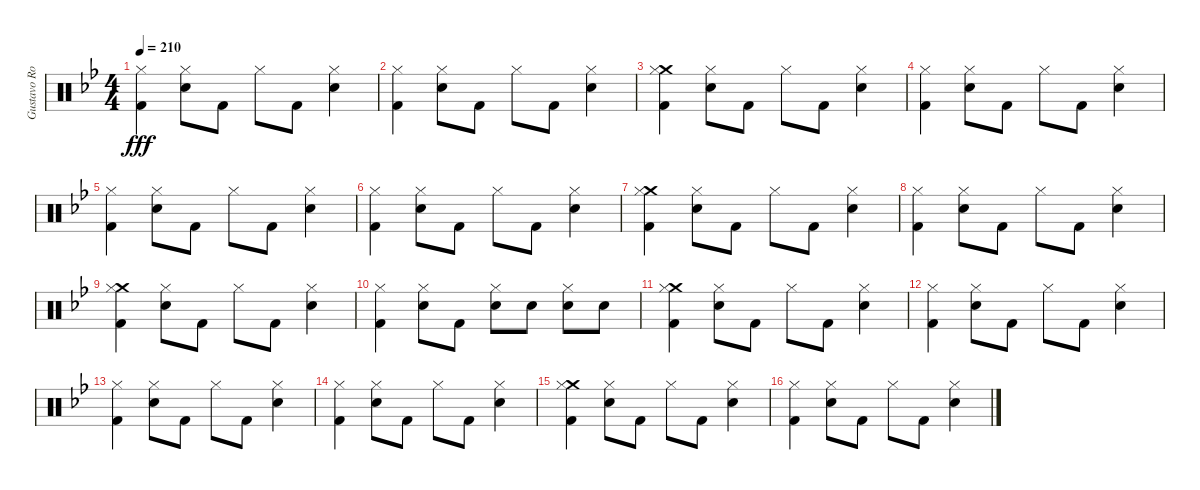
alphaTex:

\track ("Gustavo Rowek" "Gustavo Ro") {instrument percussion}
\staff {score}
\articulation defaults
\ts (4 4)
\tempo 210
\clef neutral
\ks gminor
("Hi-Hat (closed)" "Kick (hit) 2").4{dy fff} ("Hi-Hat (closed)" "Snare (hit) 2").8 "Kick (hit) 2".8 "Hi-Hat (closed)".8 "Kick (hit) 2".8 ("Hi-Hat (closed)" "Snare (hit) 2").4 |
("Hi-Hat (closed)" "Kick (hit) 2").4 ("Hi-Hat (closed)" "Snare (hit) 2").8 "Kick (hit) 2".8 "Hi-Hat (closed)".8 "Kick (hit) 2".8 ("Hi-Hat (closed)" "Snare (hit) 2").4 |
("Crash medium (hit)" "Hi-Hat (closed)" "Kick (hit) 2").4 ("Hi-Hat (closed)" "Snare (hit) 2").8 "Kick (hit) 2".8 "Hi-Hat (closed)".8 "Kick (hit) 2".8 ("Hi-Hat (closed)" "Snare (hit) 2").4 |
("Hi-Hat (closed)" "Kick (hit) 2").4 ("Hi-Hat (closed)" "Snare (hit) 2").8 "Kick (hit) 2".8 "Hi-Hat (closed)".8 "Kick (hit) 2".8 ("Hi-Hat (closed)" "Snare (hit) 2").4 |
("Hi-Hat (closed)" "Kick (hit) 2").4 ("Hi-Hat (closed)" "Snare (hit) 2").8 "Kick (hit) 2".8 "Hi-Hat (closed)".8 "Kick (hit) 2".8 ("Hi-Hat (closed)" "Snare (hit) 2").4 |
("Hi-Hat (closed)" "Kick (hit) 2").4 ("Hi-Hat (closed)" "Snare (hit) 2").8 "Kick (hit) 2".8 "Hi-Hat (closed)".8 "Kick (hit) 2".8 ("Hi-Hat (closed)" "Snare (hit) 2").4 |
("Crash medium (hit)" "Hi-Hat (closed)" "Kick (hit) 2").4 ("Hi-Hat (closed)" "Snare (hit) 2").8 "Kick (hit) 2".8 "Hi-Hat (closed)".8 "Kick (hit) 2".8 ("Hi-Hat (closed)" "Snare (hit) 2").4 |
("Hi-Hat (closed)" "Kick (hit) 2").4 ("Hi-Hat (closed)" "Snare (hit) 2").8 "Kick (hit) 2".8 "Hi-Hat (closed)".8 "Kick (hit) 2".8 ("Hi-Hat (closed)" "Snare (hit) 2").4 |
("Crash medium (hit)" "Hi-Hat (closed)" "Kick (hit) 2").4 ("Hi-Hat (closed)" "Snare (hit) 2").8 "Kick (hit) 2".8 "Hi-Hat (closed)".8 "Kick (hit) 2".8 ("Hi-Hat (closed)" "Snare (hit) 2").4 |
("Hi-Hat (closed)" "Kick (hit) 2").4 ("Hi-Hat (closed)" "Snare (hit) 2").8 "Kick (hit) 2".8 ("Hi-Hat (closed)" "Snare (hit) 2").8 "Snare (hit) 2".8 ("Hi-Hat (closed)" "Snare (hit) 2").8 "Snare (hit) 2".8 |
("Crash medium (hit)" "Hi-Hat (closed)" "Kick (hit) 2").4 ("Hi-Hat (closed)" "Snare (hit) 2").8 "Kick (hit) 2".8 "Hi-Hat (closed)".8 "Kick (hit) 2".8 ("Hi-Hat (closed)" "Snare (hit) 2").4 |
("Hi-Hat (closed)" "Kick (hit) 2").4 ("Hi-Hat (closed)" "Snare (hit) 2").8 "Kick (hit) 2".8 "Hi-Hat (closed)".8 "Kick (hit) 2".8 ("Hi-Hat (closed)" "Snare (hit) 2").4 |
("Hi-Hat (closed)" "Kick (hit) 2").4 ("Hi-Hat (closed)" "Snare (hit) 2").8 "Kick (hit) 2".8 "Hi-Hat (closed)".8 "Kick (hit) 2".8 ("Hi-Hat (closed)" "Snare (hit) 2").4 |
("Hi-Hat (closed)" "Kick (hit) 2").4 ("Hi-Hat (closed)" "Snare (hit) 2").8 "Kick (hit) 2".8 "Hi-Hat (closed)".8 "Kick (hit) 2".8 ("Hi-Hat (closed)" "Snare (hit) 2").4 |
("Crash medium (hit)" "Hi-Hat (closed)" "Kick (hit) 2").4 ("Hi-Hat (closed)" "Snare (hit) 2").8 "Kick (hit) 2".8 "Hi-Hat (closed)".8 "Kick (hit) 2".8 ("Hi-Hat (closed)" "Snare (hit) 2").4 |
("Hi-Hat (closed)" "Kick (hit) 2").4 ("Hi-Hat (closed)" "Snare (hit) 2").8 "Kick (hit) 2".8 "Hi-Hat (closed)".8 "Kick (hit) 2".8 ("Hi-Hat (closed)" "Snare (hit) 2").4
